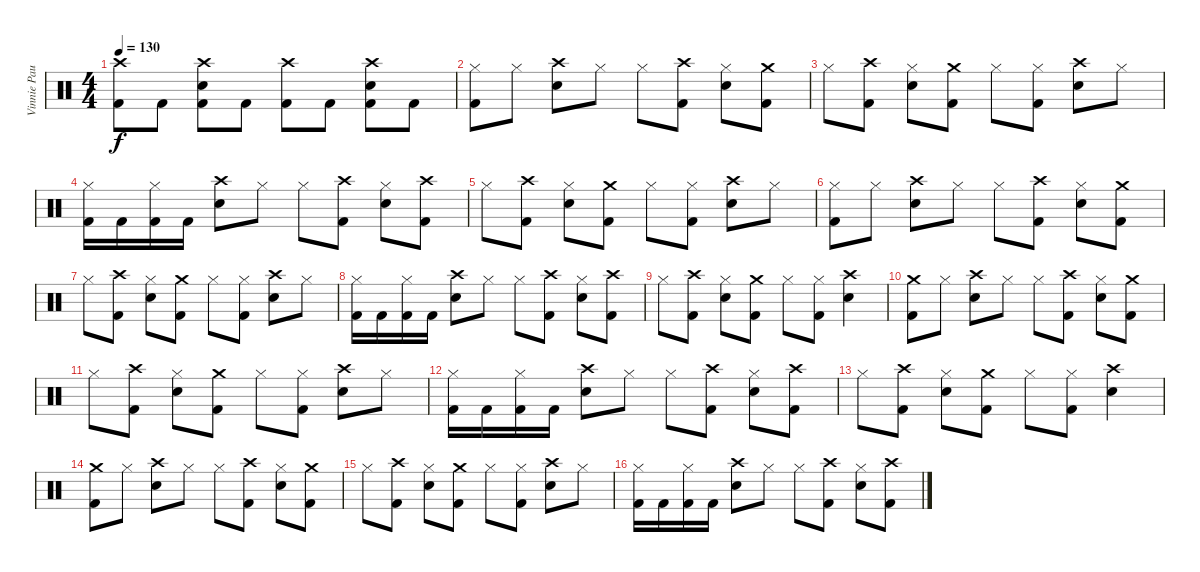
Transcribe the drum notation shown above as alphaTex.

\track ("Vinnie Paul" "Vinnie Pau") {instrument percussion}
\staff {score}
\articulation defaults
\ts (4 4)
\tempo 130
\clef neutral
\ks c
("Crash high (hit)" "Kick (hit) 2").8{dy f} "Kick (hit) 2".8 ("Crash high (hit)" "Snare (hit) 2" "Kick (hit) 2").8 "Kick (hit) 2".8 ("Crash high (hit)" "Kick (hit) 2").8 "Kick (hit) 2".8 ("Crash high (hit)" "Snare (hit) 2" "Kick (hit) 2").8 "Kick (hit) 2".8 |
("Hi-Hat (closed)" "Kick (hit) 2").8 "Hi-Hat (closed)".8 ("Crash high (hit)" "Snare (hit) 2").8 "Hi-Hat (closed)".8 "Hi-Hat (closed)".8 ("Crash high (hit)" "Kick (hit) 2").8 ("Hi-Hat (closed)" "Snare (hit) 2").8 ("Crash medium (hit)" "Kick (hit) 2").8 |
"Hi-Hat (closed)".8 ("Crash high (hit)" "Kick (hit) 2").8 ("Hi-Hat (closed)" "Snare (hit) 2").8 ("Crash medium (hit)" "Kick (hit) 2").8 "Hi-Hat (closed)".8 ("Hi-Hat (closed)" "Kick (hit) 2").8 ("Crash high (hit)" "Snare (hit) 2").8 "Hi-Hat (closed)".8 |
("Hi-Hat (closed)" "Kick (hit) 2").16 "Kick (hit) 2".16 ("Hi-Hat (closed)" "Kick (hit) 2").16 "Kick (hit) 2".16 ("Crash high (hit)" "Snare (hit) 2").8 "Hi-Hat (closed)".8 "Hi-Hat (closed)".8 ("Crash high (hit)" "Kick (hit) 2").8 ("Hi-Hat (closed)" "Snare (hit) 2").8 ("Crash high (hit)" "Kick (hit) 2").8 |
"Hi-Hat (closed)".8 ("Crash high (hit)" "Kick (hit) 2").8 ("Hi-Hat (closed)" "Snare (hit) 2").8 ("Crash medium (hit)" "Kick (hit) 2").8 "Hi-Hat (closed)".8 ("Hi-Hat (closed)" "Kick (hit) 2").8 ("Crash high (hit)" "Snare (hit) 2").8 "Hi-Hat (closed)".8 |
("Hi-Hat (closed)" "Kick (hit) 2").8 "Hi-Hat (closed)".8 ("Crash high (hit)" "Snare (hit) 2").8 "Hi-Hat (closed)".8 "Hi-Hat (closed)".8 ("Crash high (hit)" "Kick (hit) 2").8 ("Hi-Hat (closed)" "Snare (hit) 2").8 ("Crash medium (hit)" "Kick (hit) 2").8 |
"Hi-Hat (closed)".8 ("Crash high (hit)" "Kick (hit) 2").8 ("Hi-Hat (closed)" "Snare (hit) 2").8 ("Crash medium (hit)" "Kick (hit) 2").8 "Hi-Hat (closed)".8 ("Hi-Hat (closed)" "Kick (hit) 2").8 ("Crash high (hit)" "Snare (hit) 2").8 "Hi-Hat (closed)".8 |
("Hi-Hat (closed)" "Kick (hit) 2").16 "Kick (hit) 2".16 ("Hi-Hat (closed)" "Kick (hit) 2").16 "Kick (hit) 2".16 ("Crash high (hit)" "Snare (hit) 2").8 "Hi-Hat (closed)".8 "Hi-Hat (closed)".8 ("Crash high (hit)" "Kick (hit) 2").8 ("Hi-Hat (closed)" "Snare (hit) 2").8 ("Crash high (hit)" "Kick (hit) 2").8 |
"Hi-Hat (closed)".8 ("Crash high (hit)" "Kick (hit) 2").8 ("Hi-Hat (closed)" "Snare (hit) 2").8 ("Crash medium (hit)" "Kick (hit) 2").8 "Hi-Hat (closed)".8 ("Hi-Hat (closed)" "Kick (hit) 2").8 ("Crash high (hit)" "Snare (hit) 2").4 |
("Crash medium (hit)" "Kick (hit) 2").8 "Hi-Hat (closed)".8 ("Crash high (hit)" "Snare (hit) 2").8 "Hi-Hat (closed)".8 "Hi-Hat (closed)".8 ("Crash high (hit)" "Kick (hit) 2").8 ("Hi-Hat (closed)" "Snare (hit) 2").8 ("Crash medium (hit)" "Kick (hit) 2").8 |
"Hi-Hat (closed)".8 ("Crash high (hit)" "Kick (hit) 2").8 ("Hi-Hat (closed)" "Snare (hit) 2").8 ("Crash medium (hit)" "Kick (hit) 2").8 "Hi-Hat (closed)".8 ("Hi-Hat (closed)" "Kick (hit) 2").8 ("Crash high (hit)" "Snare (hit) 2").8 "Hi-Hat (closed)".8 |
("Hi-Hat (closed)" "Kick (hit) 2").16 "Kick (hit) 2".16 ("Hi-Hat (closed)" "Kick (hit) 2").16 "Kick (hit) 2".16 ("Crash high (hit)" "Snare (hit) 2").8 "Hi-Hat (closed)".8 "Hi-Hat (closed)".8 ("Crash high (hit)" "Kick (hit) 2").8 ("Hi-Hat (closed)" "Snare (hit) 2").8 ("Crash high (hit)" "Kick (hit) 2").8 |
"Hi-Hat (closed)".8 ("Crash high (hit)" "Kick (hit) 2").8 ("Hi-Hat (closed)" "Snare (hit) 2").8 ("Crash medium (hit)" "Kick (hit) 2").8 "Hi-Hat (closed)".8 ("Hi-Hat (closed)" "Kick (hit) 2").8 ("Crash high (hit)" "Snare (hit) 2").4 |
("Crash medium (hit)" "Kick (hit) 2").8 "Hi-Hat (closed)".8 ("Crash high (hit)" "Snare (hit) 2").8 "Hi-Hat (closed)".8 "Hi-Hat (closed)".8 ("Crash high (hit)" "Kick (hit) 2").8 ("Hi-Hat (closed)" "Snare (hit) 2").8 ("Crash medium (hit)" "Kick (hit) 2").8 |
"Hi-Hat (closed)".8 ("Crash high (hit)" "Kick (hit) 2").8 ("Hi-Hat (closed)" "Snare (hit) 2").8 ("Crash medium (hit)" "Kick (hit) 2").8 "Hi-Hat (closed)".8 ("Hi-Hat (closed)" "Kick (hit) 2").8 ("Crash high (hit)" "Snare (hit) 2").8 "Hi-Hat (closed)".8 |
("Hi-Hat (closed)" "Kick (hit) 2").16 "Kick (hit) 2".16 ("Hi-Hat (closed)" "Kick (hit) 2").16 "Kick (hit) 2".16 ("Crash high (hit)" "Snare (hit) 2").8 "Hi-Hat (closed)".8 "Hi-Hat (closed)".8 ("Crash high (hit)" "Kick (hit) 2").8 ("Hi-Hat (closed)" "Snare (hit) 2").8 ("Crash high (hit)" "Kick (hit) 2").8
